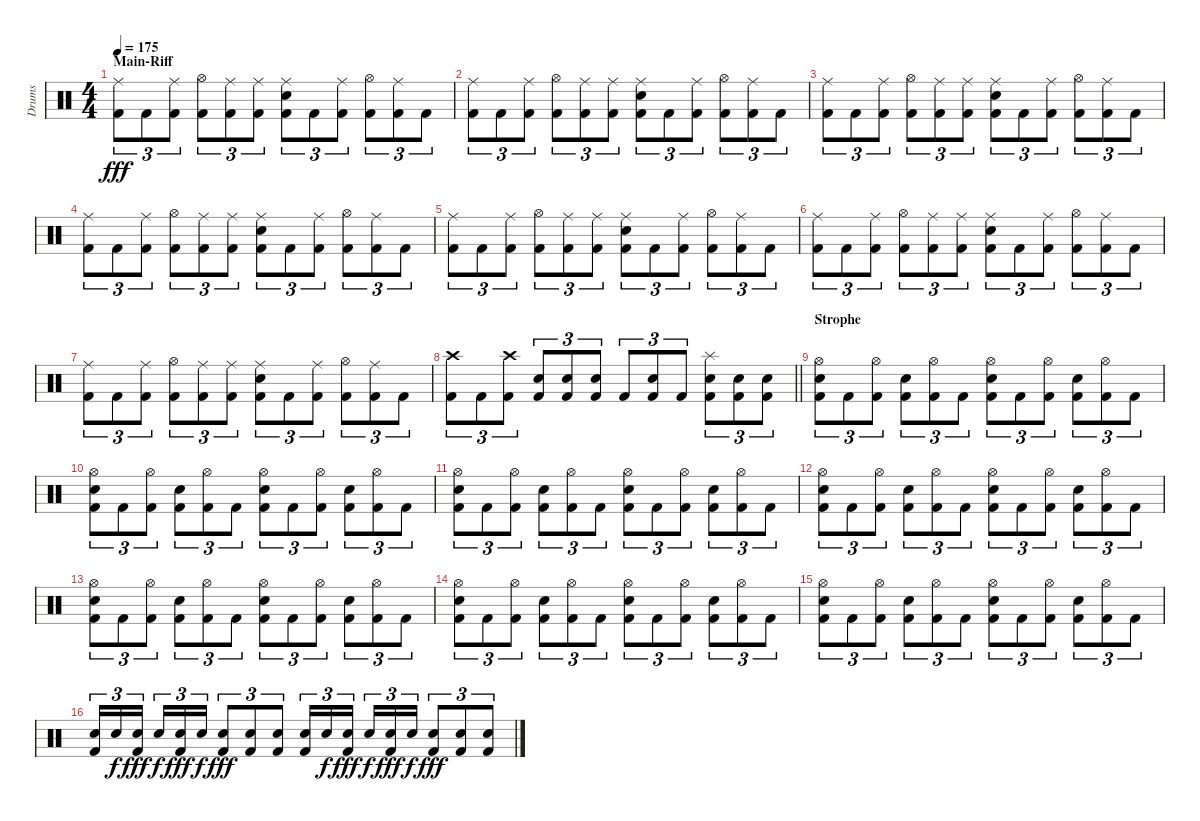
\track ("Drums" "Drums") {instrument percussion}
\staff {score}
\articulation defaults
\ts (4 4)
\section ("" "Main-Riff")
\tempo 175
\clef neutral
\ks c
("Ride (middle)" "Kick (hit) 2").8{tu (3 2) dy fff} "Kick (hit) 2".8{tu (3 2)} ("Ride (middle)" "Kick (hit) 2").8{tu (3 2)} ("Hi-Hat (open)" "Kick (hit) 2").8{tu (3 2)} ("Ride (middle)" "Kick (hit) 2").8{tu (3 2)} ("Ride (middle)" "Kick (hit) 2").8{tu (3 2)} ("Ride (middle)" "Electric Snare (hit)" "Kick (hit) 2").8{tu (3 2)} "Kick (hit) 2".8{tu (3 2)} ("Ride (middle)" "Kick (hit) 2").8{tu (3 2)} ("Hi-Hat (open)" "Kick (hit) 2").8{tu (3 2)} ("Ride (middle)" "Kick (hit) 2").8{tu (3 2)} "Kick (hit) 2".8{tu (3 2)} |
("Ride (middle)" "Kick (hit) 2").8{tu (3 2)} "Kick (hit) 2".8{tu (3 2)} ("Ride (middle)" "Kick (hit) 2").8{tu (3 2)} ("Hi-Hat (open)" "Kick (hit) 2").8{tu (3 2)} ("Ride (middle)" "Kick (hit) 2").8{tu (3 2)} ("Ride (middle)" "Kick (hit) 2").8{tu (3 2)} ("Ride (middle)" "Electric Snare (hit)" "Kick (hit) 2").8{tu (3 2)} "Kick (hit) 2".8{tu (3 2)} ("Ride (middle)" "Kick (hit) 2").8{tu (3 2)} ("Hi-Hat (open)" "Kick (hit) 2").8{tu (3 2)} ("Ride (middle)" "Kick (hit) 2").8{tu (3 2)} "Kick (hit) 2".8{tu (3 2)} |
("Ride (middle)" "Kick (hit) 2").8{tu (3 2)} "Kick (hit) 2".8{tu (3 2)} ("Ride (middle)" "Kick (hit) 2").8{tu (3 2)} ("Hi-Hat (open)" "Kick (hit) 2").8{tu (3 2)} ("Ride (middle)" "Kick (hit) 2").8{tu (3 2)} ("Ride (middle)" "Kick (hit) 2").8{tu (3 2)} ("Ride (middle)" "Electric Snare (hit)" "Kick (hit) 2").8{tu (3 2)} "Kick (hit) 2".8{tu (3 2)} ("Ride (middle)" "Kick (hit) 2").8{tu (3 2)} ("Hi-Hat (open)" "Kick (hit) 2").8{tu (3 2)} ("Ride (middle)" "Kick (hit) 2").8{tu (3 2)} "Kick (hit) 2".8{tu (3 2)} |
("Ride (middle)" "Kick (hit) 2").8{tu (3 2)} "Kick (hit) 2".8{tu (3 2)} ("Ride (middle)" "Kick (hit) 2").8{tu (3 2)} ("Hi-Hat (open)" "Kick (hit) 2").8{tu (3 2)} ("Ride (middle)" "Kick (hit) 2").8{tu (3 2)} ("Ride (middle)" "Kick (hit) 2").8{tu (3 2)} ("Ride (middle)" "Electric Snare (hit)" "Kick (hit) 2").8{tu (3 2)} "Kick (hit) 2".8{tu (3 2)} ("Ride (middle)" "Kick (hit) 2").8{tu (3 2)} ("Hi-Hat (open)" "Kick (hit) 2").8{tu (3 2)} ("Ride (middle)" "Kick (hit) 2").8{tu (3 2)} "Kick (hit) 2".8{tu (3 2)} |
("Ride (middle)" "Kick (hit) 2").8{tu (3 2)} "Kick (hit) 2".8{tu (3 2)} ("Ride (middle)" "Kick (hit) 2").8{tu (3 2)} ("Hi-Hat (open)" "Kick (hit) 2").8{tu (3 2)} ("Ride (middle)" "Kick (hit) 2").8{tu (3 2)} ("Ride (middle)" "Kick (hit) 2").8{tu (3 2)} ("Ride (middle)" "Electric Snare (hit)" "Kick (hit) 2").8{tu (3 2)} "Kick (hit) 2".8{tu (3 2)} ("Ride (middle)" "Kick (hit) 2").8{tu (3 2)} ("Hi-Hat (open)" "Kick (hit) 2").8{tu (3 2)} ("Ride (middle)" "Kick (hit) 2").8{tu (3 2)} "Kick (hit) 2".8{tu (3 2)} |
("Ride (middle)" "Kick (hit) 2").8{tu (3 2)} "Kick (hit) 2".8{tu (3 2)} ("Ride (middle)" "Kick (hit) 2").8{tu (3 2)} ("Hi-Hat (open)" "Kick (hit) 2").8{tu (3 2)} ("Ride (middle)" "Kick (hit) 2").8{tu (3 2)} ("Ride (middle)" "Kick (hit) 2").8{tu (3 2)} ("Ride (middle)" "Electric Snare (hit)" "Kick (hit) 2").8{tu (3 2)} "Kick (hit) 2".8{tu (3 2)} ("Ride (middle)" "Kick (hit) 2").8{tu (3 2)} ("Hi-Hat (open)" "Kick (hit) 2").8{tu (3 2)} ("Ride (middle)" "Kick (hit) 2").8{tu (3 2)} "Kick (hit) 2".8{tu (3 2)} |
("Ride (middle)" "Kick (hit) 2").8{tu (3 2)} "Kick (hit) 2".8{tu (3 2)} ("Ride (middle)" "Kick (hit) 2").8{tu (3 2)} ("Hi-Hat (open)" "Kick (hit) 2").8{tu (3 2)} ("Ride (middle)" "Kick (hit) 2").8{tu (3 2)} ("Ride (middle)" "Kick (hit) 2").8{tu (3 2)} ("Ride (middle)" "Electric Snare (hit)" "Kick (hit) 2").8{tu (3 2)} "Kick (hit) 2".8{tu (3 2)} ("Ride (middle)" "Kick (hit) 2").8{tu (3 2)} ("Hi-Hat (open)" "Kick (hit) 2").8{tu (3 2)} ("Ride (middle)" "Kick (hit) 2").8{tu (3 2)} "Kick (hit) 2".8{tu (3 2)} |
\barLineRight lightlight
("Crash high (hit)" "Kick (hit) 2").8{tu (3 2)} "Kick (hit) 2".8{tu (3 2)} ("Crash high (hit)" "Kick (hit) 2").8{tu (3 2)} ("Electric Snare (hit)" "Kick (hit) 2").8{tu (3 2)} ("Electric Snare (hit)" "Kick (hit) 2").8{tu (3 2)} ("Electric Snare (hit)" "Kick (hit) 2").8{tu (3 2)} "Kick (hit) 2".8{tu (3 2)} ("Electric Snare (hit)" "Kick (hit) 2").8{tu (3 2)} "Kick (hit) 2".8{tu (3 2)} ("Splash (hit)" "Electric Snare (hit)" "Kick (hit) 2").8{tu (3 2)} ("Electric Snare (hit)" "Kick (hit) 2").8{tu (3 2)} ("Electric Snare (hit)" "Kick (hit) 2").8{tu (3 2)} |
\section ("" "Strophe")
("Hi-Hat (open)" "Electric Snare (hit)" "Kick (hit) 2").8{tu (3 2)} "Kick (hit) 2".8{tu (3 2)} ("Hi-Hat (open)" "Kick (hit) 2").8{tu (3 2)} ("Electric Snare (hit)" "Kick (hit) 2").8{tu (3 2)} ("Hi-Hat (open)" "Kick (hit) 2").8{tu (3 2)} "Kick (hit) 2".8{tu (3 2)} ("Hi-Hat (open)" "Electric Snare (hit)" "Kick (hit) 2").8{tu (3 2)} "Kick (hit) 2".8{tu (3 2)} ("Hi-Hat (open)" "Kick (hit) 2").8{tu (3 2)} ("Electric Snare (hit)" "Kick (hit) 2").8{tu (3 2)} ("Hi-Hat (open)" "Kick (hit) 2").8{tu (3 2)} "Kick (hit) 2".8{tu (3 2)} |
("Hi-Hat (open)" "Electric Snare (hit)" "Kick (hit) 2").8{tu (3 2)} "Kick (hit) 2".8{tu (3 2)} ("Hi-Hat (open)" "Kick (hit) 2").8{tu (3 2)} ("Electric Snare (hit)" "Kick (hit) 2").8{tu (3 2)} ("Hi-Hat (open)" "Kick (hit) 2").8{tu (3 2)} "Kick (hit) 2".8{tu (3 2)} ("Hi-Hat (open)" "Electric Snare (hit)" "Kick (hit) 2").8{tu (3 2)} "Kick (hit) 2".8{tu (3 2)} ("Hi-Hat (open)" "Kick (hit) 2").8{tu (3 2)} ("Electric Snare (hit)" "Kick (hit) 2").8{tu (3 2)} ("Hi-Hat (open)" "Kick (hit) 2").8{tu (3 2)} "Kick (hit) 2".8{tu (3 2)} |
("Hi-Hat (open)" "Electric Snare (hit)" "Kick (hit) 2").8{tu (3 2)} "Kick (hit) 2".8{tu (3 2)} ("Hi-Hat (open)" "Kick (hit) 2").8{tu (3 2)} ("Electric Snare (hit)" "Kick (hit) 2").8{tu (3 2)} ("Hi-Hat (open)" "Kick (hit) 2").8{tu (3 2)} "Kick (hit) 2".8{tu (3 2)} ("Hi-Hat (open)" "Electric Snare (hit)" "Kick (hit) 2").8{tu (3 2)} "Kick (hit) 2".8{tu (3 2)} ("Hi-Hat (open)" "Kick (hit) 2").8{tu (3 2)} ("Electric Snare (hit)" "Kick (hit) 2").8{tu (3 2)} ("Hi-Hat (open)" "Kick (hit) 2").8{tu (3 2)} "Kick (hit) 2".8{tu (3 2)} |
("Hi-Hat (open)" "Electric Snare (hit)" "Kick (hit) 2").8{tu (3 2)} "Kick (hit) 2".8{tu (3 2)} ("Hi-Hat (open)" "Kick (hit) 2").8{tu (3 2)} ("Electric Snare (hit)" "Kick (hit) 2").8{tu (3 2)} ("Hi-Hat (open)" "Kick (hit) 2").8{tu (3 2)} "Kick (hit) 2".8{tu (3 2)} ("Hi-Hat (open)" "Electric Snare (hit)" "Kick (hit) 2").8{tu (3 2)} "Kick (hit) 2".8{tu (3 2)} ("Hi-Hat (open)" "Kick (hit) 2").8{tu (3 2)} ("Electric Snare (hit)" "Kick (hit) 2").8{tu (3 2)} ("Hi-Hat (open)" "Kick (hit) 2").8{tu (3 2)} "Kick (hit) 2".8{tu (3 2)} |
("Hi-Hat (open)" "Electric Snare (hit)" "Kick (hit) 2").8{tu (3 2)} "Kick (hit) 2".8{tu (3 2)} ("Hi-Hat (open)" "Kick (hit) 2").8{tu (3 2)} ("Electric Snare (hit)" "Kick (hit) 2").8{tu (3 2)} ("Hi-Hat (open)" "Kick (hit) 2").8{tu (3 2)} "Kick (hit) 2".8{tu (3 2)} ("Hi-Hat (open)" "Electric Snare (hit)" "Kick (hit) 2").8{tu (3 2)} "Kick (hit) 2".8{tu (3 2)} ("Hi-Hat (open)" "Kick (hit) 2").8{tu (3 2)} ("Electric Snare (hit)" "Kick (hit) 2").8{tu (3 2)} ("Hi-Hat (open)" "Kick (hit) 2").8{tu (3 2)} "Kick (hit) 2".8{tu (3 2)} |
("Hi-Hat (open)" "Electric Snare (hit)" "Kick (hit) 2").8{tu (3 2)} "Kick (hit) 2".8{tu (3 2)} ("Hi-Hat (open)" "Kick (hit) 2").8{tu (3 2)} ("Electric Snare (hit)" "Kick (hit) 2").8{tu (3 2)} ("Hi-Hat (open)" "Kick (hit) 2").8{tu (3 2)} "Kick (hit) 2".8{tu (3 2)} ("Hi-Hat (open)" "Electric Snare (hit)" "Kick (hit) 2").8{tu (3 2)} "Kick (hit) 2".8{tu (3 2)} ("Hi-Hat (open)" "Kick (hit) 2").8{tu (3 2)} ("Electric Snare (hit)" "Kick (hit) 2").8{tu (3 2)} ("Hi-Hat (open)" "Kick (hit) 2").8{tu (3 2)} "Kick (hit) 2".8{tu (3 2)} |
("Hi-Hat (open)" "Electric Snare (hit)" "Kick (hit) 2").8{tu (3 2)} "Kick (hit) 2".8{tu (3 2)} ("Hi-Hat (open)" "Kick (hit) 2").8{tu (3 2)} ("Electric Snare (hit)" "Kick (hit) 2").8{tu (3 2)} ("Hi-Hat (open)" "Kick (hit) 2").8{tu (3 2)} "Kick (hit) 2".8{tu (3 2)} ("Hi-Hat (open)" "Electric Snare (hit)" "Kick (hit) 2").8{tu (3 2)} "Kick (hit) 2".8{tu (3 2)} ("Hi-Hat (open)" "Kick (hit) 2").8{tu (3 2)} ("Electric Snare (hit)" "Kick (hit) 2").8{tu (3 2)} ("Hi-Hat (open)" "Kick (hit) 2").8{tu (3 2)} "Kick (hit) 2".8{tu (3 2)} |
("Electric Snare (hit)" "Kick (hit) 2").16{tu (3 2)} "Electric Snare (hit)".16{tu (3 2) dy f} ("Electric Snare (hit)" "Kick (hit) 2").16{tu (3 2) dy fff beam splitsecondary} "Electric Snare (hit)".16{tu (3 2) dy f} ("Electric Snare (hit)" "Kick (hit) 2").16{tu (3 2) dy fff} "Electric Snare (hit)".16{tu (3 2) dy f} ("Electric Snare (hit)" "Kick (hit) 2").8{tu (3 2) dy fff} ("Electric Snare (hit)" "Kick (hit) 2").8{tu (3 2)} ("Electric Snare (hit)" "Kick (hit) 2").8{tu (3 2)} ("Electric Snare (hit)" "Kick (hit) 2").16{tu (3 2)} "Electric Snare (hit)".16{tu (3 2) dy f} ("Electric Snare (hit)" "Kick (hit) 2").16{tu (3 2) dy fff beam splitsecondary} "Electric Snare (hit)".16{tu (3 2) dy f} ("Electric Snare (hit)" "Kick (hit) 2").16{tu (3 2) dy fff} "Electric Snare (hit)".16{tu (3 2) dy f} ("Electric Snare (hit)" "Kick (hit) 2").8{tu (3 2) dy fff} ("Electric Snare (hit)" "Kick (hit) 2").8{tu (3 2)} ("Electric Snare (hit)" "Kick (hit) 2").8{tu (3 2)}
